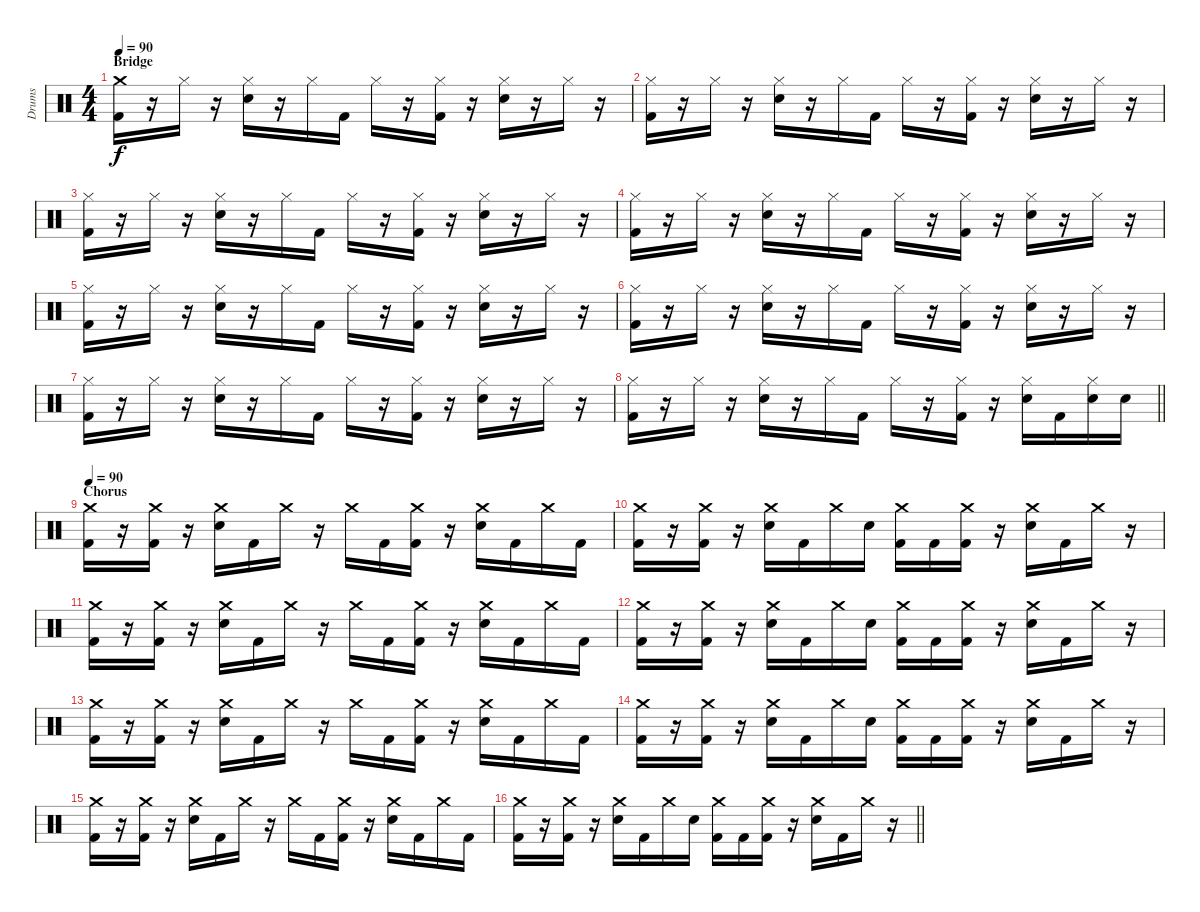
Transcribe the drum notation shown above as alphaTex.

\track ("Drums" "Drums") {instrument percussion}
\staff {score}
\articulation defaults
\ts (4 4)
\section ("" "Bridge")
\tempo 90
\clef neutral
\ks c
("Crash medium (hit)" "Kick (hit) 2").16{dy f} r.16 "Hi-Hat (closed)".16 r.16 ("Hi-Hat (closed)" "Electric Snare (hit)").16 r.16 "Hi-Hat (closed)".16 "Kick (hit) 2".16 "Hi-Hat (closed)".16 r.16 ("Hi-Hat (closed)" "Kick (hit) 2").16 r.16 ("Hi-Hat (closed)" "Electric Snare (hit)").16 r.16 "Hi-Hat (closed)".16 r.16 |
("Hi-Hat (closed)" "Kick (hit) 2").16 r.16 "Hi-Hat (closed)".16 r.16 ("Hi-Hat (closed)" "Electric Snare (hit)").16 r.16 "Hi-Hat (closed)".16 "Kick (hit) 2".16 "Hi-Hat (closed)".16 r.16 ("Hi-Hat (closed)" "Kick (hit) 2").16 r.16 ("Hi-Hat (closed)" "Electric Snare (hit)").16 r.16 "Hi-Hat (closed)".16 r.16 |
("Hi-Hat (closed)" "Kick (hit) 2").16 r.16 "Hi-Hat (closed)".16 r.16 ("Hi-Hat (closed)" "Electric Snare (hit)").16 r.16 "Hi-Hat (closed)".16 "Kick (hit) 2".16 "Hi-Hat (closed)".16 r.16 ("Hi-Hat (closed)" "Kick (hit) 2").16 r.16 ("Hi-Hat (closed)" "Electric Snare (hit)").16 r.16 "Hi-Hat (closed)".16 r.16 |
("Hi-Hat (closed)" "Kick (hit) 2").16 r.16 "Hi-Hat (closed)".16 r.16 ("Hi-Hat (closed)" "Electric Snare (hit)").16 r.16 "Hi-Hat (closed)".16 "Kick (hit) 2".16 "Hi-Hat (closed)".16 r.16 ("Hi-Hat (closed)" "Kick (hit) 2").16 r.16 ("Hi-Hat (closed)" "Electric Snare (hit)").16 r.16 "Hi-Hat (closed)".16 r.16 |
("Hi-Hat (closed)" "Kick (hit) 2").16 r.16 "Hi-Hat (closed)".16 r.16 ("Hi-Hat (closed)" "Electric Snare (hit)").16 r.16 "Hi-Hat (closed)".16 "Kick (hit) 2".16 "Hi-Hat (closed)".16 r.16 ("Hi-Hat (closed)" "Kick (hit) 2").16 r.16 ("Hi-Hat (closed)" "Electric Snare (hit)").16 r.16 "Hi-Hat (closed)".16 r.16 |
("Hi-Hat (closed)" "Kick (hit) 2").16 r.16 "Hi-Hat (closed)".16 r.16 ("Hi-Hat (closed)" "Electric Snare (hit)").16 r.16 "Hi-Hat (closed)".16 "Kick (hit) 2".16 "Hi-Hat (closed)".16 r.16 ("Hi-Hat (closed)" "Kick (hit) 2").16 r.16 ("Hi-Hat (closed)" "Electric Snare (hit)").16 r.16 "Hi-Hat (closed)".16 r.16 |
("Hi-Hat (closed)" "Kick (hit) 2").16 r.16 "Hi-Hat (closed)".16 r.16 ("Hi-Hat (closed)" "Electric Snare (hit)").16 r.16 "Hi-Hat (closed)".16 "Kick (hit) 2".16 "Hi-Hat (closed)".16 r.16 ("Hi-Hat (closed)" "Kick (hit) 2").16 r.16 ("Hi-Hat (closed)" "Electric Snare (hit)").16 r.16 "Hi-Hat (closed)".16 r.16 |
\barLineRight lightlight
("Hi-Hat (closed)" "Kick (hit) 2").16 r.16 "Hi-Hat (closed)".16 r.16 ("Hi-Hat (closed)" "Electric Snare (hit)").16 r.16 "Hi-Hat (closed)".16 "Kick (hit) 2".16 "Hi-Hat (closed)".16 r.16 ("Hi-Hat (closed)" "Kick (hit) 2").16 r.16 ("Hi-Hat (closed)" "Electric Snare (hit)").16 "Kick (hit) 2".16 ("Hi-Hat (closed)" "Electric Snare (hit)").16 "Electric Snare (hit)".16 |
\section ("" "Chorus")
\tempo 90
("Crash medium (hit)" "Kick (hit) 2").16 r.16 ("Crash medium (hit)" "Kick (hit) 2").16 r.16 ("Crash medium (hit)" "Electric Snare (hit)").16 "Kick (hit) 2".16 "Crash medium (hit)".16 r.16 "Crash medium (hit)".16 "Kick (hit) 2".16 ("Crash medium (hit)" "Kick (hit) 2").16 r.16 ("Crash medium (hit)" "Electric Snare (hit)").16 "Kick (hit) 2".16 "Crash medium (hit)".16 "Kick (hit) 2".16 |
("Crash medium (hit)" "Kick (hit) 2").16 r.16 ("Crash medium (hit)" "Kick (hit) 2").16 r.16 ("Crash medium (hit)" "Electric Snare (hit)").16 "Kick (hit) 2".16 "Crash medium (hit)".16 "Electric Snare (hit)".16 ("Crash medium (hit)" "Kick (hit) 2").16 "Kick (hit) 2".16 ("Crash medium (hit)" "Kick (hit) 2").16 r.16 ("Crash medium (hit)" "Electric Snare (hit)").16 "Kick (hit) 2".16 "Crash medium (hit)".16 r.16 |
("Crash medium (hit)" "Kick (hit) 2").16 r.16 ("Crash medium (hit)" "Kick (hit) 2").16 r.16 ("Crash medium (hit)" "Electric Snare (hit)").16 "Kick (hit) 2".16 "Crash medium (hit)".16 r.16 "Crash medium (hit)".16 "Kick (hit) 2".16 ("Crash medium (hit)" "Kick (hit) 2").16 r.16 ("Crash medium (hit)" "Electric Snare (hit)").16 "Kick (hit) 2".16 "Crash medium (hit)".16 "Kick (hit) 2".16 |
("Crash medium (hit)" "Kick (hit) 2").16 r.16 ("Crash medium (hit)" "Kick (hit) 2").16 r.16 ("Crash medium (hit)" "Electric Snare (hit)").16 "Kick (hit) 2".16 "Crash medium (hit)".16 "Electric Snare (hit)".16 ("Crash medium (hit)" "Kick (hit) 2").16 "Kick (hit) 2".16 ("Crash medium (hit)" "Kick (hit) 2").16 r.16 ("Crash medium (hit)" "Electric Snare (hit)").16 "Kick (hit) 2".16 "Crash medium (hit)".16 r.16 |
("Crash medium (hit)" "Kick (hit) 2").16 r.16 ("Crash medium (hit)" "Kick (hit) 2").16 r.16 ("Crash medium (hit)" "Electric Snare (hit)").16 "Kick (hit) 2".16 "Crash medium (hit)".16 r.16 "Crash medium (hit)".16 "Kick (hit) 2".16 ("Crash medium (hit)" "Kick (hit) 2").16 r.16 ("Crash medium (hit)" "Electric Snare (hit)").16 "Kick (hit) 2".16 "Crash medium (hit)".16 "Kick (hit) 2".16 |
("Crash medium (hit)" "Kick (hit) 2").16 r.16 ("Crash medium (hit)" "Kick (hit) 2").16 r.16 ("Crash medium (hit)" "Electric Snare (hit)").16 "Kick (hit) 2".16 "Crash medium (hit)".16 "Electric Snare (hit)".16 ("Crash medium (hit)" "Kick (hit) 2").16 "Kick (hit) 2".16 ("Crash medium (hit)" "Kick (hit) 2").16 r.16 ("Crash medium (hit)" "Electric Snare (hit)").16 "Kick (hit) 2".16 "Crash medium (hit)".16 r.16 |
("Crash medium (hit)" "Kick (hit) 2").16 r.16 ("Crash medium (hit)" "Kick (hit) 2").16 r.16 ("Crash medium (hit)" "Electric Snare (hit)").16 "Kick (hit) 2".16 "Crash medium (hit)".16 r.16 "Crash medium (hit)".16 "Kick (hit) 2".16 ("Crash medium (hit)" "Kick (hit) 2").16 r.16 ("Crash medium (hit)" "Electric Snare (hit)").16 "Kick (hit) 2".16 "Crash medium (hit)".16 "Kick (hit) 2".16 |
\barLineRight lightlight
("Crash medium (hit)" "Kick (hit) 2").16 r.16 ("Crash medium (hit)" "Kick (hit) 2").16 r.16 ("Crash medium (hit)" "Electric Snare (hit)").16 "Kick (hit) 2".16 "Crash medium (hit)".16 "Electric Snare (hit)".16 ("Crash medium (hit)" "Kick (hit) 2").16 "Kick (hit) 2".16 ("Crash medium (hit)" "Kick (hit) 2").16 r.16 ("Crash medium (hit)" "Electric Snare (hit)").16 "Kick (hit) 2".16 "Crash medium (hit)".16 r.16
